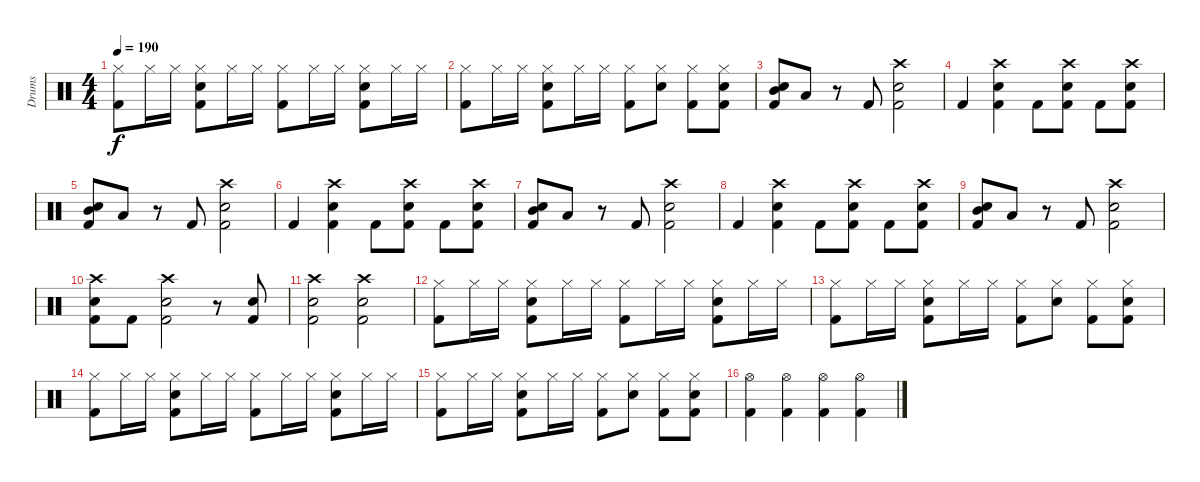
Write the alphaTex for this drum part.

\track ("Drums" "Drums") {instrument percussion}
\staff {score}
\articulation defaults
\ts (4 4)
\tempo 190
\clef neutral
\ks c
("Kick (hit) 2" "Hi-Hat (closed)").8{dy f} "Hi-Hat (closed)".16 "Hi-Hat (closed)".16 ("Kick (hit) 2" "Snare (hit) 2" "Hi-Hat (closed)").8 "Hi-Hat (closed)".16 "Hi-Hat (closed)".16 ("Kick (hit) 2" "Hi-Hat (closed)").8 "Hi-Hat (closed)".16 "Hi-Hat (closed)".16 ("Kick (hit) 2" "Snare (hit) 2" "Hi-Hat (closed)").8 "Hi-Hat (closed)".16 "Hi-Hat (closed)".16 |
("Kick (hit) 2" "Hi-Hat (closed)").8 "Hi-Hat (closed)".16 "Hi-Hat (closed)".16 ("Kick (hit) 2" "Snare (hit) 2" "Hi-Hat (closed)").8 "Hi-Hat (closed)".16 "Hi-Hat (closed)".16 ("Kick (hit) 2" "Hi-Hat (closed)").8 ("Hi-Hat (closed)" "Snare (hit) 2").8 ("Kick (hit) 2" "Hi-Hat (closed)").8 ("Hi-Hat (closed)" "Kick (hit) 2" "Snare (hit) 2").8 |
("Kick (hit) 2" "Mid Tom (hit)" "Snare (hit) 2").8 "Low Tom (hit)".8 r.8 "Kick (hit) 2".8 ("Snare (hit) 2" "Kick (hit) 2" "Crash high (hit)").2 |
"Kick (hit) 2".4 ("Kick (hit) 2" "Snare (hit) 2" "Crash high (hit)").4 "Kick (hit) 2".8 ("Kick (hit) 2" "Snare (hit) 2" "Crash high (hit)").8 "Kick (hit) 2".8 ("Kick (hit) 2" "Snare (hit) 2" "Crash high (hit)").8 |
("Kick (hit) 2" "Mid Tom (hit)" "Snare (hit) 2").8 "Low Tom (hit)".8 r.8 "Kick (hit) 2".8 ("Snare (hit) 2" "Kick (hit) 2" "Crash high (hit)").2 |
"Kick (hit) 2".4 ("Kick (hit) 2" "Snare (hit) 2" "Crash high (hit)").4 "Kick (hit) 2".8 ("Kick (hit) 2" "Snare (hit) 2" "Crash high (hit)").8 "Kick (hit) 2".8 ("Kick (hit) 2" "Snare (hit) 2" "Crash high (hit)").8 |
("Kick (hit) 2" "Mid Tom (hit)" "Snare (hit) 2").8 "Low Tom (hit)".8 r.8 "Kick (hit) 2".8 ("Snare (hit) 2" "Kick (hit) 2" "Crash high (hit)").2 |
"Kick (hit) 2".4 ("Kick (hit) 2" "Snare (hit) 2" "Crash high (hit)").4 "Kick (hit) 2".8 ("Kick (hit) 2" "Snare (hit) 2" "Crash high (hit)").8 "Kick (hit) 2".8 ("Kick (hit) 2" "Snare (hit) 2" "Crash high (hit)").8 |
("Kick (hit) 2" "Mid Tom (hit)" "Snare (hit) 2").8 "Low Tom (hit)".8 r.8 "Kick (hit) 2".8 ("Snare (hit) 2" "Kick (hit) 2" "Crash high (hit)").2 |
("Kick (hit) 2" "Crash high (hit)" "Snare (hit) 2").8 "Kick (hit) 2".8 ("Kick (hit) 2" "Snare (hit) 2" "Crash high (hit)").2 r.8 ("Kick (hit) 2" "Snare (hit) 2").8 |
("Kick (hit) 2" "Snare (hit) 2" "Crash high (hit)").2 ("Kick (hit) 2" "Snare (hit) 2" "Crash high (hit)").2 |
("Kick (hit) 2" "Hi-Hat (closed)").8 "Hi-Hat (closed)".16 "Hi-Hat (closed)".16 ("Kick (hit) 2" "Snare (hit) 2" "Hi-Hat (closed)").8 "Hi-Hat (closed)".16 "Hi-Hat (closed)".16 ("Kick (hit) 2" "Hi-Hat (closed)").8 "Hi-Hat (closed)".16 "Hi-Hat (closed)".16 ("Kick (hit) 2" "Snare (hit) 2" "Hi-Hat (closed)").8 "Hi-Hat (closed)".16 "Hi-Hat (closed)".16 |
("Kick (hit) 2" "Hi-Hat (closed)").8 "Hi-Hat (closed)".16 "Hi-Hat (closed)".16 ("Kick (hit) 2" "Snare (hit) 2" "Hi-Hat (closed)").8 "Hi-Hat (closed)".16 "Hi-Hat (closed)".16 ("Kick (hit) 2" "Hi-Hat (closed)").8 ("Hi-Hat (closed)" "Snare (hit) 2").8 ("Kick (hit) 2" "Hi-Hat (closed)").8 ("Hi-Hat (closed)" "Kick (hit) 2" "Snare (hit) 2").8 |
("Kick (hit) 2" "Hi-Hat (closed)").8 "Hi-Hat (closed)".16 "Hi-Hat (closed)".16 ("Kick (hit) 2" "Snare (hit) 2" "Hi-Hat (closed)").8 "Hi-Hat (closed)".16 "Hi-Hat (closed)".16 ("Kick (hit) 2" "Hi-Hat (closed)").8 "Hi-Hat (closed)".16 "Hi-Hat (closed)".16 ("Kick (hit) 2" "Snare (hit) 2" "Hi-Hat (closed)").8 "Hi-Hat (closed)".16 "Hi-Hat (closed)".16 |
("Kick (hit) 2" "Hi-Hat (closed)").8 "Hi-Hat (closed)".16 "Hi-Hat (closed)".16 ("Kick (hit) 2" "Snare (hit) 2" "Hi-Hat (closed)").8 "Hi-Hat (closed)".16 "Hi-Hat (closed)".16 ("Kick (hit) 2" "Hi-Hat (closed)").8 ("Hi-Hat (closed)" "Snare (hit) 2").8 ("Kick (hit) 2" "Hi-Hat (closed)").8 ("Hi-Hat (closed)" "Kick (hit) 2" "Snare (hit) 2").8 |
("Kick (hit) 2" "Hi-Hat (open)").4 ("Kick (hit) 2" "Hi-Hat (open)").4 ("Kick (hit) 2" "Hi-Hat (open)").4 ("Kick (hit) 2" "Hi-Hat (open)").4
